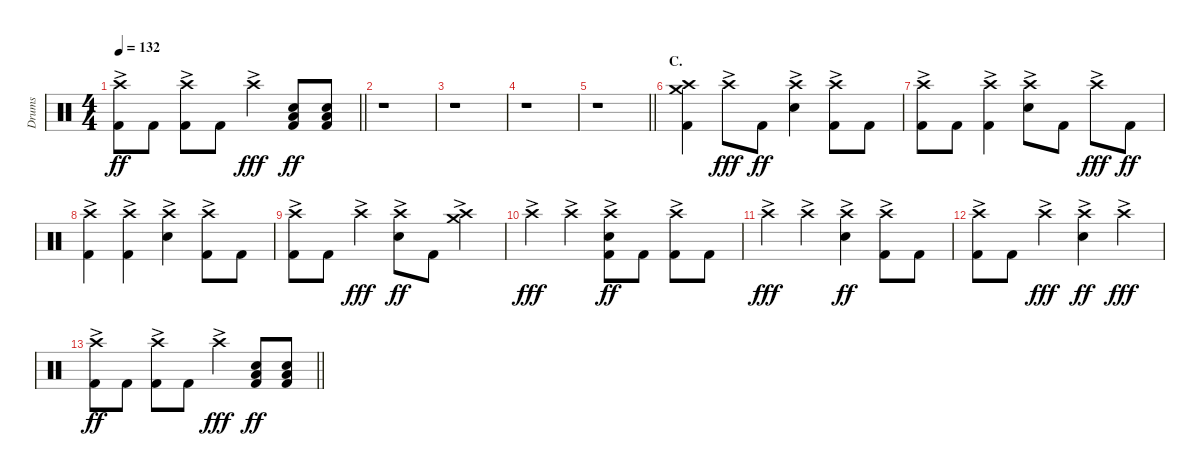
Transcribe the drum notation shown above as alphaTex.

\track ("Drums" "Drums") {instrument percussion}
\staff {score}
\articulation defaults
\ts (4 4)
\tempo 132
\clef neutral
\barLineRight lightlight
\ks c
("Crash high (hit)"{ac} "Kick (hit) 2").8{dy ff} "Kick (hit) 2".8 ("Crash high (hit)"{ac} "Kick (hit) 2").8 "Kick (hit) 2".8 "Crash high (hit)"{ac}.4{dy fff} ("Low Tom (hit)" "Electric Snare (hit)" "Kick (hit) 2").8{dy ff} ("Low Tom (hit)" "Electric Snare (hit)" "Kick (hit) 2").8 |
\section ("" "")
r.1 |
r.1 |
r.1 |
\barLineRight lightlight
r.1 |
\section ("" "C.")
("Crash medium (hit)" "Crash high (hit)" "Kick (hit) 2").4 "Crash high (hit)"{ac}.8{dy fff} "Kick (hit) 2".8{dy ff} ("Crash high (hit)"{ac} "Electric Snare (hit)").4 ("Crash high (hit)"{ac} "Kick (hit) 2").8 "Kick (hit) 2".8 |
("Crash high (hit)"{ac} "Kick (hit) 2").8 "Kick (hit) 2".8 ("Crash high (hit)"{ac} "Kick (hit) 2").4 ("Crash high (hit)"{ac} "Electric Snare (hit)").8 "Kick (hit) 2".8 "Crash high (hit)"{ac}.8{dy fff} "Kick (hit) 2".8{dy ff} |
("Crash high (hit)"{ac} "Kick (hit) 2").4 ("Crash high (hit)"{ac} "Kick (hit) 2").4 ("Crash high (hit)"{ac} "Electric Snare (hit)").4 ("Crash high (hit)"{ac} "Kick (hit) 2").8 "Kick (hit) 2".8 |
("Crash high (hit)"{ac} "Kick (hit) 2").8 "Kick (hit) 2".8 "Crash high (hit)"{ac}.4{dy fff} ("Crash high (hit)"{ac} "Electric Snare (hit)").8{dy ff} "Kick (hit) 2".8 ("Crash medium (hit)"{ac} "Crash high (hit)").4 |
"Crash high (hit)"{ac}.4{dy fff} "Crash high (hit)"{ac}.4 ("Crash high (hit)"{ac} "Electric Snare (hit)" "Kick (hit) 2").8{dy ff} "Kick (hit) 2".8 ("Crash high (hit)"{ac} "Kick (hit) 2").8 "Kick (hit) 2".8 |
"Crash high (hit)"{ac}.4{dy fff} "Crash high (hit)"{ac}.4 ("Crash high (hit)"{ac} "Electric Snare (hit)").4{dy ff} ("Crash high (hit)"{ac} "Kick (hit) 2").8 "Kick (hit) 2".8 |
("Crash high (hit)"{ac} "Kick (hit) 2").8 "Kick (hit) 2".8 "Crash high (hit)"{ac}.4{dy fff} ("Crash high (hit)"{ac} "Electric Snare (hit)").4{dy ff} "Crash high (hit)"{ac}.4{dy fff} |
\barLineRight lightlight
("Crash high (hit)"{ac} "Kick (hit) 2").8{dy ff} "Kick (hit) 2".8 ("Crash high (hit)"{ac} "Kick (hit) 2").8 "Kick (hit) 2".8 "Crash high (hit)"{ac}.4{dy fff} ("Low Tom (hit)" "Electric Snare (hit)" "Kick (hit) 2").8{dy ff} ("Low Tom (hit)" "Electric Snare (hit)" "Kick (hit) 2").8
